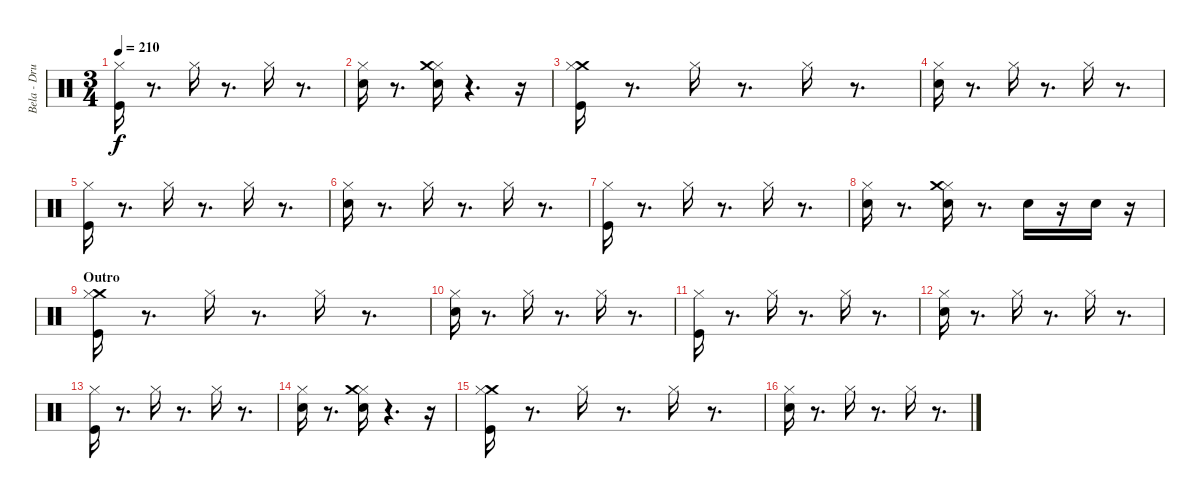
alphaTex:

\track ("Bela - Drums" "Bela - Dru") {instrument percussion}
\staff {score}
\articulation defaults
\ts (3 4)
\tempo 210
\clef neutral
\ks c
("Kick (hit)" "Hi-Hat (closed)").16{dy f} r.8{d} "Hi-Hat (closed)".16 r.8{d} "Hi-Hat (closed)".16 r.8{d} |
("Hi-Hat (closed)" "Electric Snare (hit)").16 r.8{d} ("Hi-Hat (closed)" "Electric Snare (hit)" "Crash medium (hit)").16 r.4{d} r.16 |
("Kick (hit)" "Crash medium (hit)" "Hi-Hat (closed)").16 r.8{d} "Hi-Hat (closed)".16 r.8{d} "Hi-Hat (closed)".16 r.8{d} |
("Hi-Hat (closed)" "Electric Snare (hit)").16 r.8{d} "Hi-Hat (closed)".16 r.8{d} "Hi-Hat (closed)".16 r.8{d} |
("Kick (hit)" "Hi-Hat (closed)").16 r.8{d} "Hi-Hat (closed)".16 r.8{d} "Hi-Hat (closed)".16 r.8{d} |
("Hi-Hat (closed)" "Electric Snare (hit)").16 r.8{d} "Hi-Hat (closed)".16 r.8{d} "Hi-Hat (closed)".16 r.8{d} |
("Kick (hit)" "Hi-Hat (closed)").16 r.8{d} "Hi-Hat (closed)".16 r.8{d} "Hi-Hat (closed)".16 r.8{d} |
("Hi-Hat (closed)" "Electric Snare (hit)").16 r.8{d} ("Hi-Hat (closed)" "Electric Snare (hit)" "Crash medium (hit)").16 r.8{d} "Electric Snare (hit)".16 r.16 "Electric Snare (hit)".16 r.16 |
\section ("" "Outro")
("Kick (hit)" "Crash medium (hit)" "Hi-Hat (closed)").16 r.8{d} "Hi-Hat (closed)".16 r.8{d} "Hi-Hat (closed)".16 r.8{d} |
("Hi-Hat (closed)" "Electric Snare (hit)").16 r.8{d} "Hi-Hat (closed)".16 r.8{d} "Hi-Hat (closed)".16 r.8{d} |
("Kick (hit)" "Hi-Hat (closed)").16 r.8{d} "Hi-Hat (closed)".16 r.8{d} "Hi-Hat (closed)".16 r.8{d} |
("Hi-Hat (closed)" "Electric Snare (hit)").16 r.8{d} "Hi-Hat (closed)".16 r.8{d} "Hi-Hat (closed)".16 r.8{d} |
("Kick (hit)" "Hi-Hat (closed)").16 r.8{d} "Hi-Hat (closed)".16 r.8{d} "Hi-Hat (closed)".16 r.8{d} |
("Hi-Hat (closed)" "Electric Snare (hit)").16 r.8{d} ("Hi-Hat (closed)" "Electric Snare (hit)" "Crash medium (hit)").16 r.4{d} r.16 |
("Kick (hit)" "Crash medium (hit)" "Hi-Hat (closed)").16 r.8{d} "Hi-Hat (closed)".16 r.8{d} "Hi-Hat (closed)".16 r.8{d} |
("Hi-Hat (closed)" "Electric Snare (hit)").16 r.8{d} "Hi-Hat (closed)".16 r.8{d} "Hi-Hat (closed)".16 r.8{d}
